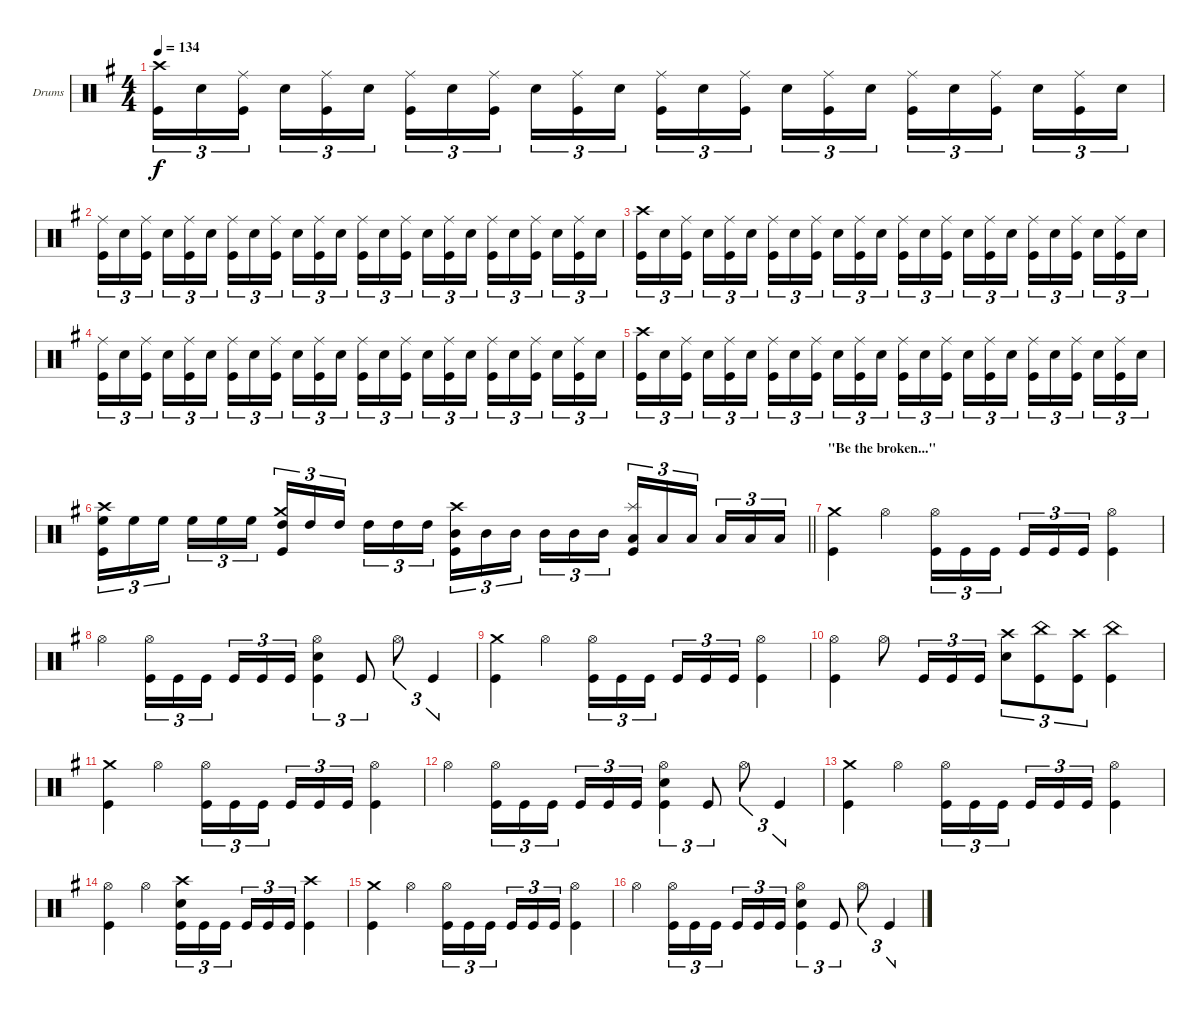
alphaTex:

\bracketExtendMode groupsimilarinstruments
\firstSystemTrackNameOrientation horizontal
\otherSystemsTrackNameOrientation horizontal
\track ("Drumkit" "Drums") {instrument percussion}
\staff {score}
\articulation defaults
\ts (4 4)
\tempo 134
\clef neutral
\scale
0.5
\ks g
("Crash high (hit)" "Kick (hit)").16{tu (3 2) dy f} "Snare (hit) 2".16{tu (3 2)} ("Ride (middle)" "Kick (hit)").16{tu (3 2)} "Snare (hit) 2".16{tu (3 2)} ("Ride (middle)" "Kick (hit)").16{tu (3 2)} "Snare (hit) 2".16{tu (3 2)} ("Ride (middle)" "Kick (hit)").16{tu (3 2)} "Snare (hit) 2".16{tu (3 2)} ("Ride (middle)" "Kick (hit)").16{tu (3 2)} "Snare (hit) 2".16{tu (3 2)} ("Ride (middle)" "Kick (hit)").16{tu (3 2)} "Snare (hit) 2".16{tu (3 2)} ("Ride (middle)" "Kick (hit)").16{tu (3 2)} "Snare (hit) 2".16{tu (3 2)} ("Ride (middle)" "Kick (hit)").16{tu (3 2)} "Snare (hit) 2".16{tu (3 2)} ("Ride (middle)" "Kick (hit)").16{tu (3 2)} "Snare (hit) 2".16{tu (3 2)} ("Ride (middle)" "Kick (hit)").16{tu (3 2)} "Snare (hit) 2".16{tu (3 2)} ("Ride (middle)" "Kick (hit)").16{tu (3 2)} "Snare (hit) 2".16{tu (3 2)} ("Ride (middle)" "Kick (hit)").16{tu (3 2)} "Snare (hit) 2".16{tu (3 2)} |
\scale
0.5 ("Ride (middle)" "Kick (hit)").16{tu (3 2)} "Snare (hit) 2".16{tu (3 2)} ("Ride (middle)" "Kick (hit)").16{tu (3 2)} "Snare (hit) 2".16{tu (3 2)} ("Ride (middle)" "Kick (hit)").16{tu (3 2)} "Snare (hit) 2".16{tu (3 2)} ("Ride (middle)" "Kick (hit)").16{tu (3 2)} "Snare (hit) 2".16{tu (3 2)} ("Ride (middle)" "Kick (hit)").16{tu (3 2)} "Snare (hit) 2".16{tu (3 2)} ("Ride (middle)" "Kick (hit)").16{tu (3 2)} "Snare (hit) 2".16{tu (3 2)} ("Ride (middle)" "Kick (hit)").16{tu (3 2)} "Snare (hit) 2".16{tu (3 2)} ("Ride (middle)" "Kick (hit)").16{tu (3 2)} "Snare (hit) 2".16{tu (3 2)} ("Ride (middle)" "Kick (hit)").16{tu (3 2)} "Snare (hit) 2".16{tu (3 2)} ("Ride (middle)" "Kick (hit)").16{tu (3 2)} "Snare (hit) 2".16{tu (3 2)} ("Ride (middle)" "Kick (hit)").16{tu (3 2)} "Snare (hit) 2".16{tu (3 2)} ("Ride (middle)" "Kick (hit)").16{tu (3 2)} "Snare (hit) 2".16{tu (3 2)} |
\scale
0.5 ("Crash high (hit)" "Kick (hit)").16{tu (3 2)} "Snare (hit) 2".16{tu (3 2)} ("Ride (middle)" "Kick (hit)").16{tu (3 2)} "Snare (hit) 2".16{tu (3 2)} ("Ride (middle)" "Kick (hit)").16{tu (3 2)} "Snare (hit) 2".16{tu (3 2)} ("Ride (middle)" "Kick (hit)").16{tu (3 2)} "Snare (hit) 2".16{tu (3 2)} ("Ride (middle)" "Kick (hit)").16{tu (3 2)} "Snare (hit) 2".16{tu (3 2)} ("Ride (middle)" "Kick (hit)").16{tu (3 2)} "Snare (hit) 2".16{tu (3 2)} ("Ride (middle)" "Kick (hit)").16{tu (3 2)} "Snare (hit) 2".16{tu (3 2)} ("Ride (middle)" "Kick (hit)").16{tu (3 2)} "Snare (hit) 2".16{tu (3 2)} ("Ride (middle)" "Kick (hit)").16{tu (3 2)} "Snare (hit) 2".16{tu (3 2)} ("Ride (middle)" "Kick (hit)").16{tu (3 2)} "Snare (hit) 2".16{tu (3 2)} ("Ride (middle)" "Kick (hit)").16{tu (3 2)} "Snare (hit) 2".16{tu (3 2)} ("Ride (middle)" "Kick (hit)").16{tu (3 2)} "Snare (hit) 2".16{tu (3 2)} |
\scale
0.5 ("Ride (middle)" "Kick (hit)").16{tu (3 2)} "Snare (hit) 2".16{tu (3 2)} ("Ride (middle)" "Kick (hit)").16{tu (3 2)} "Snare (hit) 2".16{tu (3 2)} ("Ride (middle)" "Kick (hit)").16{tu (3 2)} "Snare (hit) 2".16{tu (3 2)} ("Ride (middle)" "Kick (hit)").16{tu (3 2)} "Snare (hit) 2".16{tu (3 2)} ("Ride (middle)" "Kick (hit)").16{tu (3 2)} "Snare (hit) 2".16{tu (3 2)} ("Ride (middle)" "Kick (hit)").16{tu (3 2)} "Snare (hit) 2".16{tu (3 2)} ("Ride (middle)" "Kick (hit)").16{tu (3 2)} "Snare (hit) 2".16{tu (3 2)} ("Ride (middle)" "Kick (hit)").16{tu (3 2)} "Snare (hit) 2".16{tu (3 2)} ("Ride (middle)" "Kick (hit)").16{tu (3 2)} "Snare (hit) 2".16{tu (3 2)} ("Ride (middle)" "Kick (hit)").16{tu (3 2)} "Snare (hit) 2".16{tu (3 2)} ("Ride (middle)" "Kick (hit)").16{tu (3 2)} "Snare (hit) 2".16{tu (3 2)} ("Ride (middle)" "Kick (hit)").16{tu (3 2)} "Snare (hit) 2".16{tu (3 2)} |
\scale
0.5 ("Crash high (hit)" "Kick (hit)").16{tu (3 2)} "Snare (hit) 2".16{tu (3 2)} ("Ride (middle)" "Kick (hit)").16{tu (3 2)} "Snare (hit) 2".16{tu (3 2)} ("Ride (middle)" "Kick (hit)").16{tu (3 2)} "Snare (hit) 2".16{tu (3 2)} ("Ride (middle)" "Kick (hit)").16{tu (3 2)} "Snare (hit) 2".16{tu (3 2)} ("Ride (middle)" "Kick (hit)").16{tu (3 2)} "Snare (hit) 2".16{tu (3 2)} ("Ride (middle)" "Kick (hit)").16{tu (3 2)} "Snare (hit) 2".16{tu (3 2)} ("Ride (middle)" "Kick (hit)").16{tu (3 2)} "Snare (hit) 2".16{tu (3 2)} ("Ride (middle)" "Kick (hit)").16{tu (3 2)} "Snare (hit) 2".16{tu (3 2)} ("Ride (middle)" "Kick (hit)").16{tu (3 2)} "Snare (hit) 2".16{tu (3 2)} ("Ride (middle)" "Kick (hit)").16{tu (3 2)} "Snare (hit) 2".16{tu (3 2)} ("Ride (middle)" "Kick (hit)").16{tu (3 2)} "Snare (hit) 2".16{tu (3 2)} ("Ride (middle)" "Kick (hit)").16{tu (3 2)} "Snare (hit) 2".16{tu (3 2)} |
\scale
0.631579
\barLineRight lightlight
("Crash high (hit)" "High Floor Tom (hit)" "Kick (hit)").16{tu (3 2)} "High Floor Tom (hit)".16{tu (3 2)} "High Floor Tom (hit)".16{tu (3 2)} "High Floor Tom (hit)".16{tu (3 2)} "High Floor Tom (hit)".16{tu (3 2)} "High Floor Tom (hit)".16{tu (3 2)} ("Crash medium (hit)" "High Tom (hit)" "Kick (hit)").16{tu (3 2)} "High Tom (hit)".16{tu (3 2)} "High Tom (hit)".16{tu (3 2)} "High Tom (hit)".16{tu (3 2)} "High Tom (hit)".16{tu (3 2)} "High Tom (hit)".16{tu (3 2)} ("Crash high (hit)" "Mid Tom (hit)" "Kick (hit)").16{tu (3 2)} "Mid Tom (hit)".16{tu (3 2)} "Mid Tom (hit)".16{tu (3 2)} "Mid Tom (hit)".16{tu (3 2)} "Mid Tom (hit)".16{tu (3 2)} "Mid Tom (hit)".16{tu (3 2)} ("Splash (hit)" "Low Tom (hit)" "Kick (hit)").16{tu (3 2)} "Low Tom (hit)".16{tu (3 2)} "Low Tom (hit)".16{tu (3 2)} "Low Tom (hit)".16{tu (3 2)} "Low Tom (hit)".16{tu (3 2)} "Low Tom (hit)".16{tu (3 2)} |
\section ("" "\"Be the broken...\"")
\scale
0.368421 ("Crash medium (hit)" "Kick (hit)").4 "Hi-Hat (open)".4 ("Hi-Hat (open)" "Kick (hit)").16{tu (3 2)} "Kick (hit)".16{tu (3 2)} "Kick (hit)".16{tu (3 2)} "Kick (hit)".16{tu (3 2)} "Kick (hit)".16{tu (3 2)} "Kick (hit)".16{tu (3 2)} ("Hi-Hat (open)" "Kick (hit)").4 |
\scale
0.529148 "Hi-Hat (open)".4 ("Hi-Hat (open)" "Kick (hit)").16{tu (3 2)} "Kick (hit)".16{tu (3 2)} "Kick (hit)".16{tu (3 2)} "Kick (hit)".16{tu (3 2)} "Kick (hit)".16{tu (3 2)} "Kick (hit)".16{tu (3 2)} ("Hi-Hat (open)" "Snare (hit) 2" "Kick (hit)").4{tu (3 2)} "Kick (hit)".8{tu (3 2)} "Hi-Hat (open)".8{tu (3 2)} "Kick (hit)".4{tu (3 2)} |
\scale
0.470852 ("Crash medium (hit)" "Kick (hit)").4 "Hi-Hat (open)".4 ("Hi-Hat (open)" "Kick (hit)").16{tu (3 2)} "Kick (hit)".16{tu (3 2)} "Kick (hit)".16{tu (3 2)} "Kick (hit)".16{tu (3 2)} "Kick (hit)".16{tu (3 2)} "Kick (hit)".16{tu (3 2)} ("Hi-Hat (open)" "Kick (hit)").4 |
\scale
0.505882 ("Hi-Hat (open)" "Kick (hit)").4 "Hi-Hat (open)".8 "Kick (hit)".16{tu (3 2)} "Kick (hit)".16{tu (3 2)} "Kick (hit)".16{tu (3 2)} ("Crash high (hit)" "Snare (hit) 2").8{tu (3 2)} ("China (hit)" "Kick (hit)").8{tu (3 2)} ("Crash high (hit)" "Kick (hit)").8{tu (3 2)} ("China (hit)" "Kick (hit)").4 |
\scale
0.494118 ("Crash medium (hit)" "Kick (hit)").4 "Hi-Hat (open)".4 ("Hi-Hat (open)" "Kick (hit)").16{tu (3 2)} "Kick (hit)".16{tu (3 2)} "Kick (hit)".16{tu (3 2)} "Kick (hit)".16{tu (3 2)} "Kick (hit)".16{tu (3 2)} "Kick (hit)".16{tu (3 2)} ("Hi-Hat (open)" "Kick (hit)").4 |
\scale
0.529148 "Hi-Hat (open)".4 ("Hi-Hat (open)" "Kick (hit)").16{tu (3 2)} "Kick (hit)".16{tu (3 2)} "Kick (hit)".16{tu (3 2)} "Kick (hit)".16{tu (3 2)} "Kick (hit)".16{tu (3 2)} "Kick (hit)".16{tu (3 2)} ("Hi-Hat (open)" "Snare (hit) 2" "Kick (hit)").4{tu (3 2)} "Kick (hit)".8{tu (3 2)} "Hi-Hat (open)".8{tu (3 2)} "Kick (hit)".4{tu (3 2)} |
\scale
0.470852 ("Crash medium (hit)" "Kick (hit)").4 "Hi-Hat (open)".4 ("Hi-Hat (open)" "Kick (hit)").16{tu (3 2)} "Kick (hit)".16{tu (3 2)} "Kick (hit)".16{tu (3 2)} "Kick (hit)".16{tu (3 2)} "Kick (hit)".16{tu (3 2)} "Kick (hit)".16{tu (3 2)} ("Hi-Hat (open)" "Kick (hit)").4 |
\scale
0.5 ("Hi-Hat (open)" "Kick (hit)").4 "Hi-Hat (open)".4 ("Crash high (hit)" "Snare (hit) 2" "Kick (hit)").16{tu (3 2)} "Kick (hit)".16{tu (3 2)} "Kick (hit)".16{tu (3 2)} "Kick (hit)".16{tu (3 2)} "Kick (hit)".16{tu (3 2)} "Kick (hit)".16{tu (3 2)} ("Crash high (hit)" "Kick (hit)").4 |
\scale
0.5 ("Crash medium (hit)" "Kick (hit)").4 "Hi-Hat (open)".4 ("Hi-Hat (open)" "Kick (hit)").16{tu (3 2)} "Kick (hit)".16{tu (3 2)} "Kick (hit)".16{tu (3 2)} "Kick (hit)".16{tu (3 2)} "Kick (hit)".16{tu (3 2)} "Kick (hit)".16{tu (3 2)} ("Hi-Hat (open)" "Kick (hit)").4 |
\scale
0.529148 "Hi-Hat (open)".4 ("Hi-Hat (open)" "Kick (hit)").16{tu (3 2)} "Kick (hit)".16{tu (3 2)} "Kick (hit)".16{tu (3 2)} "Kick (hit)".16{tu (3 2)} "Kick (hit)".16{tu (3 2)} "Kick (hit)".16{tu (3 2)} ("Hi-Hat (open)" "Snare (hit) 2" "Kick (hit)").4{tu (3 2)} "Kick (hit)".8{tu (3 2)} "Hi-Hat (open)".8{tu (3 2)} "Kick (hit)".4{tu (3 2)}
